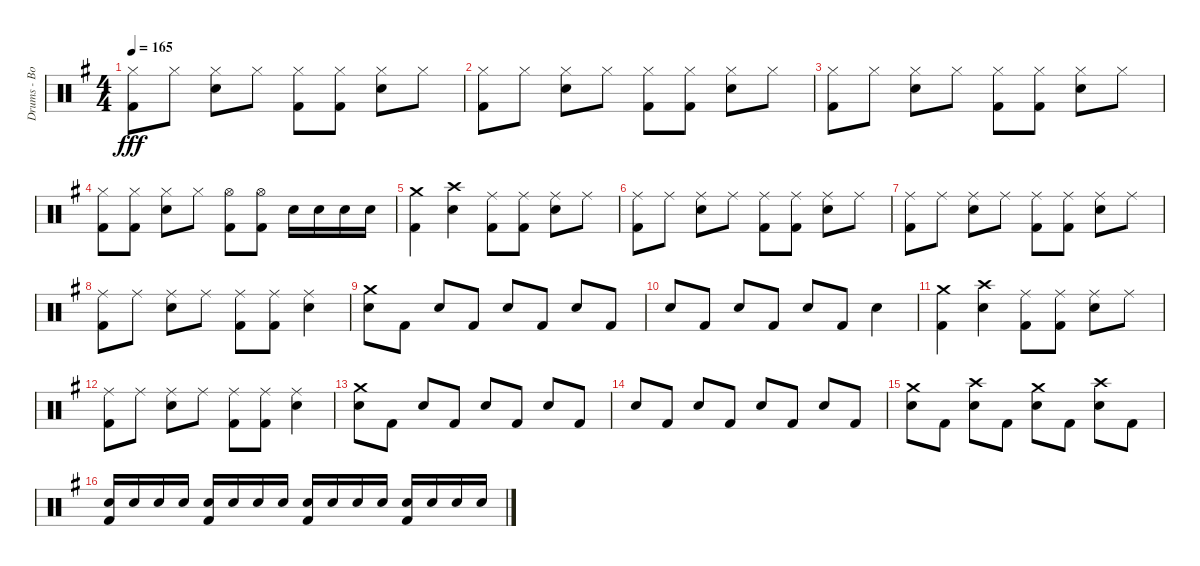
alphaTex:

\track ("Drums - Bobby Schayer" "Drums - Bo") {instrument percussion}
\staff {score}
\articulation defaults
\ts (4 4)
\tempo 165
\clef neutral
\ks g
("Hi-Hat (closed)" "Kick (hit) 2").8{dy fff} "Hi-Hat (closed)".8 ("Hi-Hat (closed)" "Electric Snare (hit)").8 "Hi-Hat (closed)".8 ("Hi-Hat (closed)" "Kick (hit) 2").8 ("Hi-Hat (closed)" "Kick (hit) 2").8 ("Hi-Hat (closed)" "Electric Snare (hit)").8 "Hi-Hat (closed)".8 |
("Hi-Hat (closed)" "Kick (hit) 2").8 "Hi-Hat (closed)".8 ("Hi-Hat (closed)" "Electric Snare (hit)").8 "Hi-Hat (closed)".8 ("Hi-Hat (closed)" "Kick (hit) 2").8 ("Hi-Hat (closed)" "Kick (hit) 2").8 ("Hi-Hat (closed)" "Electric Snare (hit)").8 "Hi-Hat (closed)".8 |
("Hi-Hat (closed)" "Kick (hit) 2").8 "Hi-Hat (closed)".8 ("Hi-Hat (closed)" "Electric Snare (hit)").8 "Hi-Hat (closed)".8 ("Hi-Hat (closed)" "Kick (hit) 2").8 ("Hi-Hat (closed)" "Kick (hit) 2").8 ("Hi-Hat (closed)" "Electric Snare (hit)").8 "Hi-Hat (closed)".8 |
("Hi-Hat (closed)" "Kick (hit) 2").8 ("Hi-Hat (closed)" "Kick (hit) 2").8 ("Hi-Hat (closed)" "Electric Snare (hit)").8 "Hi-Hat (closed)".8 ("Hi-Hat (open)" "Kick (hit) 2").8 ("Hi-Hat (open)" "Kick (hit) 2").8 "Electric Snare (hit)".16 "Electric Snare (hit)".16 "Electric Snare (hit)".16 "Electric Snare (hit)".16 |
("Crash medium (hit)" "Kick (hit) 2").4 ("Crash high (hit)" "Electric Snare (hit)").4 ("Ride (middle)" "Kick (hit) 2").8 ("Ride (middle)" "Kick (hit) 2").8 ("Ride (middle)" "Electric Snare (hit)").8 "Ride (middle)".8 |
("Ride (middle)" "Kick (hit) 2").8 "Ride (middle)".8 ("Ride (middle)" "Electric Snare (hit)").8 "Ride (middle)".8 ("Ride (middle)" "Kick (hit) 2").8 ("Ride (middle)" "Kick (hit) 2").8 ("Ride (middle)" "Electric Snare (hit)").8 "Ride (middle)".8 |
("Ride (middle)" "Kick (hit) 2").8 "Ride (middle)".8 ("Ride (middle)" "Electric Snare (hit)").8 "Ride (middle)".8 ("Ride (middle)" "Kick (hit) 2").8 ("Ride (middle)" "Kick (hit) 2").8 ("Ride (middle)" "Electric Snare (hit)").8 "Ride (middle)".8 |
("Ride (middle)" "Kick (hit) 2").8 "Ride (middle)".8 ("Ride (middle)" "Electric Snare (hit)").8 "Ride (middle)".8 ("Ride (middle)" "Kick (hit) 2").8 ("Ride (middle)" "Kick (hit) 2").8 ("Ride (middle)" "Electric Snare (hit)").4 |
("Crash medium (hit)" "Electric Snare (hit)").8 "Kick (hit) 2".8 "Electric Snare (hit)".8 "Kick (hit) 2".8 "Electric Snare (hit)".8 "Kick (hit) 2".8 "Electric Snare (hit)".8 "Kick (hit) 2".8 |
"Electric Snare (hit)".8 "Kick (hit) 2".8 "Electric Snare (hit)".8 "Kick (hit) 2".8 "Electric Snare (hit)".8 "Kick (hit) 2".8 "Electric Snare (hit)".4 |
("Crash medium (hit)" "Kick (hit) 2").4 ("Crash high (hit)" "Electric Snare (hit)").4 ("Ride (middle)" "Kick (hit) 2").8 ("Ride (middle)" "Kick (hit) 2").8 ("Ride (middle)" "Electric Snare (hit)").8 "Ride (middle)".8 |
("Ride (middle)" "Kick (hit) 2").8 "Ride (middle)".8 ("Ride (middle)" "Electric Snare (hit)").8 "Ride (middle)".8 ("Ride (middle)" "Kick (hit) 2").8 ("Ride (middle)" "Kick (hit) 2").8 ("Ride (middle)" "Electric Snare (hit)").4 |
("Crash medium (hit)" "Electric Snare (hit)").8 "Kick (hit) 2".8 "Electric Snare (hit)".8 "Kick (hit) 2".8 "Electric Snare (hit)".8 "Kick (hit) 2".8 "Electric Snare (hit)".8 "Kick (hit) 2".8 |
"Electric Snare (hit)".8 "Kick (hit) 2".8 "Electric Snare (hit)".8 "Kick (hit) 2".8 "Electric Snare (hit)".8 "Kick (hit) 2".8 "Electric Snare (hit)".8 "Kick (hit) 2".8 |
("Crash medium (hit)" "Electric Snare (hit)").8 "Kick (hit) 2".8 ("Crash high (hit)" "Electric Snare (hit)").8 "Kick (hit) 2".8 ("Crash medium (hit)" "Electric Snare (hit)").8 "Kick (hit) 2".8 ("Crash high (hit)" "Electric Snare (hit)").8 "Kick (hit) 2".8 |
("Electric Snare (hit)" "Kick (hit) 2").16 "Electric Snare (hit)".16 "Electric Snare (hit)".16 "Electric Snare (hit)".16 ("Electric Snare (hit)" "Kick (hit) 2").16 "Electric Snare (hit)".16 "Electric Snare (hit)".16 "Electric Snare (hit)".16 ("Electric Snare (hit)" "Kick (hit) 2").16 "Electric Snare (hit)".16 "Electric Snare (hit)".16 "Electric Snare (hit)".16 ("Electric Snare (hit)" "Kick (hit) 2").16 "Electric Snare (hit)".16 "Electric Snare (hit)".16 "Electric Snare (hit)".16
